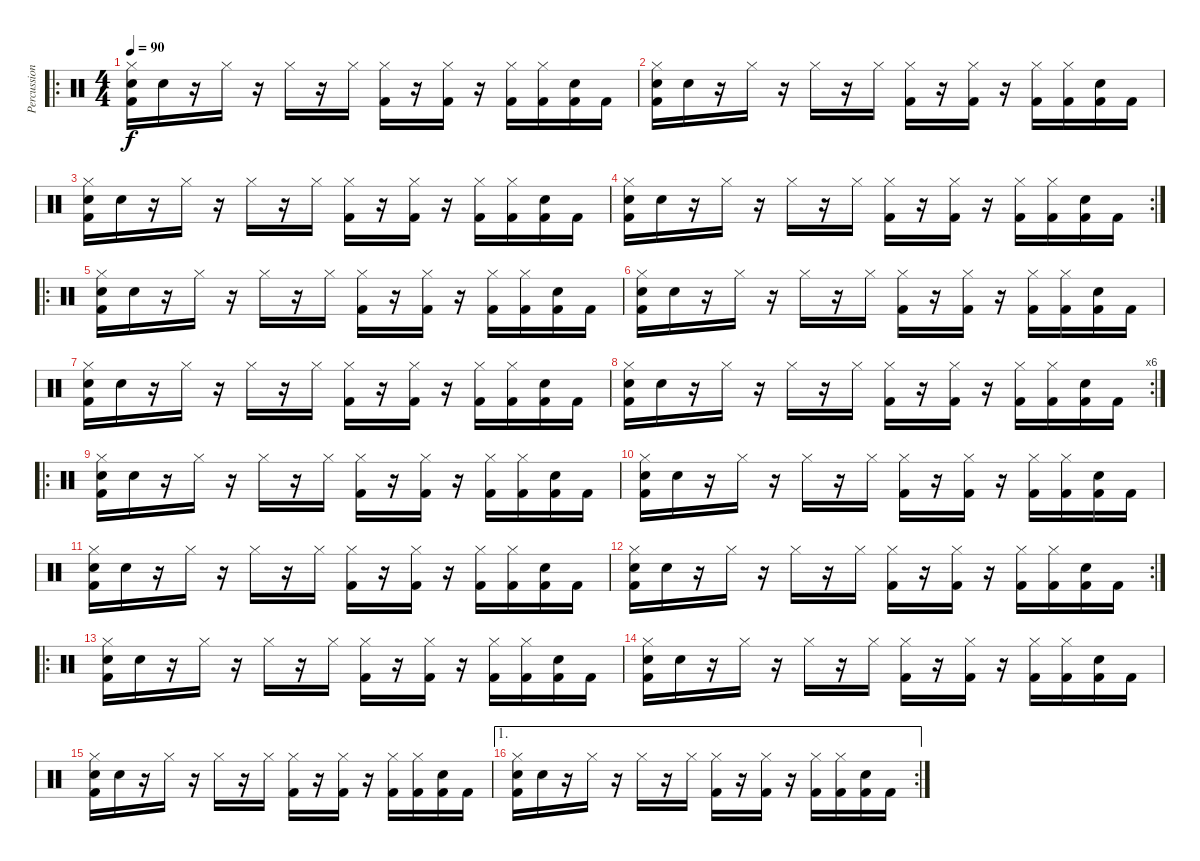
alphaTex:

\track ("Percussion" "Percussion") {instrument percussion}
\staff {score}
\articulation defaults
\ro
\ts (4 4)
\tempo 90
\clef neutral
\ks c
("Hi-Hat (closed)" "Electric Snare (hit)" "Kick (hit) 2").16{dy f} "Electric Snare (hit)".16 r.16 "Hi-Hat (closed)".16 r.16 "Hi-Hat (closed)".16 r.16 "Hi-Hat (closed)".16 ("Hi-Hat (closed)" "Kick (hit) 2").16 r.16 ("Hi-Hat (closed)" "Kick (hit) 2").16 r.16 ("Hi-Hat (closed)" "Kick (hit) 2").16 ("Hi-Hat (closed)" "Kick (hit) 2").16 ("Electric Snare (hit)" "Kick (hit) 2").16 "Kick (hit) 2".16 |
("Hi-Hat (closed)" "Electric Snare (hit)" "Kick (hit) 2").16 "Electric Snare (hit)".16 r.16 "Hi-Hat (closed)".16 r.16 "Hi-Hat (closed)".16 r.16 "Hi-Hat (closed)".16 ("Hi-Hat (closed)" "Kick (hit) 2").16 r.16 ("Hi-Hat (closed)" "Kick (hit) 2").16 r.16 ("Hi-Hat (closed)" "Kick (hit) 2").16 ("Hi-Hat (closed)" "Kick (hit) 2").16 ("Electric Snare (hit)" "Kick (hit) 2").16 "Kick (hit) 2".16 |
("Hi-Hat (closed)" "Electric Snare (hit)" "Kick (hit) 2").16 "Electric Snare (hit)".16 r.16 "Hi-Hat (closed)".16 r.16 "Hi-Hat (closed)".16 r.16 "Hi-Hat (closed)".16 ("Hi-Hat (closed)" "Kick (hit) 2").16 r.16 ("Hi-Hat (closed)" "Kick (hit) 2").16 r.16 ("Hi-Hat (closed)" "Kick (hit) 2").16 ("Hi-Hat (closed)" "Kick (hit) 2").16 ("Electric Snare (hit)" "Kick (hit) 2").16 "Kick (hit) 2".16 |
\rc 2
("Hi-Hat (closed)" "Electric Snare (hit)" "Kick (hit) 2").16 "Electric Snare (hit)".16 r.16 "Hi-Hat (closed)".16 r.16 "Hi-Hat (closed)".16 r.16 "Hi-Hat (closed)".16 ("Hi-Hat (closed)" "Kick (hit) 2").16 r.16 ("Hi-Hat (closed)" "Kick (hit) 2").16 r.16 ("Hi-Hat (closed)" "Kick (hit) 2").16 ("Hi-Hat (closed)" "Kick (hit) 2").16 ("Electric Snare (hit)" "Kick (hit) 2").16 "Kick (hit) 2".16 |
\ro
("Hi-Hat (closed)" "Electric Snare (hit)" "Kick (hit) 2").16 "Electric Snare (hit)".16 r.16 "Hi-Hat (closed)".16 r.16 "Hi-Hat (closed)".16 r.16 "Hi-Hat (closed)".16 ("Hi-Hat (closed)" "Kick (hit) 2").16 r.16 ("Hi-Hat (closed)" "Kick (hit) 2").16 r.16 ("Hi-Hat (closed)" "Kick (hit) 2").16 ("Hi-Hat (closed)" "Kick (hit) 2").16 ("Electric Snare (hit)" "Kick (hit) 2").16 "Kick (hit) 2".16 |
("Hi-Hat (closed)" "Electric Snare (hit)" "Kick (hit) 2").16 "Electric Snare (hit)".16 r.16 "Hi-Hat (closed)".16 r.16 "Hi-Hat (closed)".16 r.16 "Hi-Hat (closed)".16 ("Hi-Hat (closed)" "Kick (hit) 2").16 r.16 ("Hi-Hat (closed)" "Kick (hit) 2").16 r.16 ("Hi-Hat (closed)" "Kick (hit) 2").16 ("Hi-Hat (closed)" "Kick (hit) 2").16 ("Electric Snare (hit)" "Kick (hit) 2").16 "Kick (hit) 2".16 |
("Hi-Hat (closed)" "Electric Snare (hit)" "Kick (hit) 2").16 "Electric Snare (hit)".16 r.16 "Hi-Hat (closed)".16 r.16 "Hi-Hat (closed)".16 r.16 "Hi-Hat (closed)".16 ("Hi-Hat (closed)" "Kick (hit) 2").16 r.16 ("Hi-Hat (closed)" "Kick (hit) 2").16 r.16 ("Hi-Hat (closed)" "Kick (hit) 2").16 ("Hi-Hat (closed)" "Kick (hit) 2").16 ("Electric Snare (hit)" "Kick (hit) 2").16 "Kick (hit) 2".16 |
\rc 6
("Hi-Hat (closed)" "Electric Snare (hit)" "Kick (hit) 2").16 "Electric Snare (hit)".16 r.16 "Hi-Hat (closed)".16 r.16 "Hi-Hat (closed)".16 r.16 "Hi-Hat (closed)".16 ("Hi-Hat (closed)" "Kick (hit) 2").16 r.16 ("Hi-Hat (closed)" "Kick (hit) 2").16 r.16 ("Hi-Hat (closed)" "Kick (hit) 2").16 ("Hi-Hat (closed)" "Kick (hit) 2").16 ("Electric Snare (hit)" "Kick (hit) 2").16 "Kick (hit) 2".16 |
\ro
("Hi-Hat (closed)" "Electric Snare (hit)" "Kick (hit) 2").16 "Electric Snare (hit)".16 r.16 "Hi-Hat (closed)".16 r.16 "Hi-Hat (closed)".16 r.16 "Hi-Hat (closed)".16 ("Hi-Hat (closed)" "Kick (hit) 2").16 r.16 ("Hi-Hat (closed)" "Kick (hit) 2").16 r.16 ("Hi-Hat (closed)" "Kick (hit) 2").16 ("Hi-Hat (closed)" "Kick (hit) 2").16 ("Electric Snare (hit)" "Kick (hit) 2").16 "Kick (hit) 2".16 |
("Hi-Hat (closed)" "Electric Snare (hit)" "Kick (hit) 2").16 "Electric Snare (hit)".16 r.16 "Hi-Hat (closed)".16 r.16 "Hi-Hat (closed)".16 r.16 "Hi-Hat (closed)".16 ("Hi-Hat (closed)" "Kick (hit) 2").16 r.16 ("Hi-Hat (closed)" "Kick (hit) 2").16 r.16 ("Hi-Hat (closed)" "Kick (hit) 2").16 ("Hi-Hat (closed)" "Kick (hit) 2").16 ("Electric Snare (hit)" "Kick (hit) 2").16 "Kick (hit) 2".16 |
("Hi-Hat (closed)" "Electric Snare (hit)" "Kick (hit) 2").16 "Electric Snare (hit)".16 r.16 "Hi-Hat (closed)".16 r.16 "Hi-Hat (closed)".16 r.16 "Hi-Hat (closed)".16 ("Hi-Hat (closed)" "Kick (hit) 2").16 r.16 ("Hi-Hat (closed)" "Kick (hit) 2").16 r.16 ("Hi-Hat (closed)" "Kick (hit) 2").16 ("Hi-Hat (closed)" "Kick (hit) 2").16 ("Electric Snare (hit)" "Kick (hit) 2").16 "Kick (hit) 2".16 |
\rc 2
("Hi-Hat (closed)" "Electric Snare (hit)" "Kick (hit) 2").16 "Electric Snare (hit)".16 r.16 "Hi-Hat (closed)".16 r.16 "Hi-Hat (closed)".16 r.16 "Hi-Hat (closed)".16 ("Hi-Hat (closed)" "Kick (hit) 2").16 r.16 ("Hi-Hat (closed)" "Kick (hit) 2").16 r.16 ("Hi-Hat (closed)" "Kick (hit) 2").16 ("Hi-Hat (closed)" "Kick (hit) 2").16 ("Electric Snare (hit)" "Kick (hit) 2").16 "Kick (hit) 2".16 |
\ro
("Hi-Hat (closed)" "Electric Snare (hit)" "Kick (hit) 2").16 "Electric Snare (hit)".16 r.16 "Hi-Hat (closed)".16 r.16 "Hi-Hat (closed)".16 r.16 "Hi-Hat (closed)".16 ("Hi-Hat (closed)" "Kick (hit) 2").16 r.16 ("Hi-Hat (closed)" "Kick (hit) 2").16 r.16 ("Hi-Hat (closed)" "Kick (hit) 2").16 ("Hi-Hat (closed)" "Kick (hit) 2").16 ("Electric Snare (hit)" "Kick (hit) 2").16 "Kick (hit) 2".16 |
("Hi-Hat (closed)" "Electric Snare (hit)" "Kick (hit) 2").16 "Electric Snare (hit)".16 r.16 "Hi-Hat (closed)".16 r.16 "Hi-Hat (closed)".16 r.16 "Hi-Hat (closed)".16 ("Hi-Hat (closed)" "Kick (hit) 2").16 r.16 ("Hi-Hat (closed)" "Kick (hit) 2").16 r.16 ("Hi-Hat (closed)" "Kick (hit) 2").16 ("Hi-Hat (closed)" "Kick (hit) 2").16 ("Electric Snare (hit)" "Kick (hit) 2").16 "Kick (hit) 2".16 |
("Hi-Hat (closed)" "Electric Snare (hit)" "Kick (hit) 2").16 "Electric Snare (hit)".16 r.16 "Hi-Hat (closed)".16 r.16 "Hi-Hat (closed)".16 r.16 "Hi-Hat (closed)".16 ("Hi-Hat (closed)" "Kick (hit) 2").16 r.16 ("Hi-Hat (closed)" "Kick (hit) 2").16 r.16 ("Hi-Hat (closed)" "Kick (hit) 2").16 ("Hi-Hat (closed)" "Kick (hit) 2").16 ("Electric Snare (hit)" "Kick (hit) 2").16 "Kick (hit) 2".16 |
\ae 1
\rc 2
("Hi-Hat (closed)" "Electric Snare (hit)" "Kick (hit) 2").16 "Electric Snare (hit)".16 r.16 "Hi-Hat (closed)".16 r.16 "Hi-Hat (closed)".16 r.16 "Hi-Hat (closed)".16 ("Hi-Hat (closed)" "Kick (hit) 2").16 r.16 ("Hi-Hat (closed)" "Kick (hit) 2").16 r.16 ("Hi-Hat (closed)" "Kick (hit) 2").16 ("Hi-Hat (closed)" "Kick (hit) 2").16 ("Electric Snare (hit)" "Kick (hit) 2").16 "Kick (hit) 2".16
